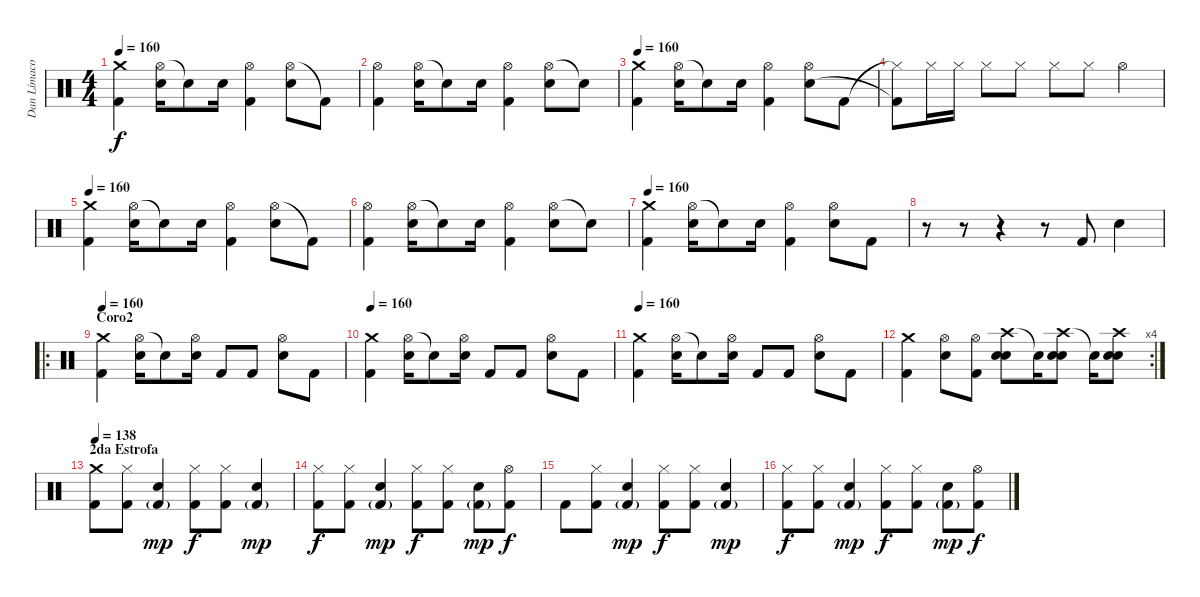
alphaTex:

\track ("Dan Límaco" "Dan Límaco") {instrument percussion}
\staff {score}
\articulation defaults
\ts (4 4)
\tempo 160
\clef neutral
\ks c
("Crash medium (hit)" "Kick (hit) 2").4{dy f} ("Hi-Hat (open)" "Snare (hit) 2").16 "Snare (hit) 2"{t}.8 "Snare (hit) 2".16 ("Hi-Hat (open)" "Kick (hit) 2").4 ("Hi-Hat (open)" "Snare (hit) 2").8 "Kick (hit) 2"{t}.8 |
("Hi-Hat (open)" "Kick (hit) 2").4 ("Hi-Hat (open)" "Snare (hit) 2").16 "Snare (hit) 2"{t}.8 "Snare (hit) 2".16 ("Hi-Hat (open)" "Kick (hit) 2").4 ("Hi-Hat (open)" "Snare (hit) 2").8 "Snare (hit)"{t}.8 |
\tempo 160
("Crash medium (hit)" "Kick (hit) 2").4 ("Hi-Hat (open)" "Snare (hit) 2").16 "Snare (hit) 2"{t}.8 "Snare (hit) 2".16 ("Hi-Hat (open)" "Kick (hit) 2").4 ("Hi-Hat (open)" "Snare (hit) 2").8 "Kick (hit) 2".8 |
("Hi-Hat (closed)"{t} "Kick (hit) 2"{t}).8 "Hi-Hat (closed)".16 "Hi-Hat (closed)".16 "Hi-Hat (closed)".8 "Hi-Hat (closed)".8 "Hi-Hat (closed)".8 "Hi-Hat (closed)".8 "Hi-Hat (open)".4 |
\tempo 160
("Crash medium (hit)" "Kick (hit) 2").4{volume 14} ("Hi-Hat (open)" "Snare (hit) 2").16 "Snare (hit) 2"{t}.8 "Snare (hit) 2".16 ("Hi-Hat (open)" "Kick (hit) 2").4 ("Hi-Hat (open)" "Snare (hit) 2").8 "Kick (hit) 2"{t}.8 |
("Hi-Hat (open)" "Kick (hit) 2").4 ("Hi-Hat (open)" "Snare (hit) 2").16 "Snare (hit) 2"{t}.8 "Snare (hit) 2".16 ("Hi-Hat (open)" "Kick (hit) 2").4 ("Hi-Hat (open)" "Snare (hit) 2").8 "Snare (hit)"{t}.8 |
\tempo 160
("Crash medium (hit)" "Kick (hit) 2").4 ("Hi-Hat (open)" "Snare (hit) 2").16 "Snare (hit) 2"{t}.8 "Snare (hit) 2".16 ("Hi-Hat (open)" "Kick (hit) 2").4 ("Hi-Hat (open)" "Snare (hit) 2").8 "Kick (hit) 2".8 |
r.8 r.8 r.4 r.8 "Kick (hit) 2".8 "Snare (hit) 2".4 |
\ro
\section ("" "Coro2")
\tempo 160
("Crash medium (hit)" "Kick (hit) 2").4{volume 14} ("Hi-Hat (open)" "Snare (hit) 2").16 "Snare (hit) 2"{t}.8 ("Hi-Hat (open)" "Snare (hit) 2").16 "Kick (hit) 2".8 "Kick (hit) 2".8 ("Hi-Hat (open)" "Snare (hit) 2").8 "Kick (hit) 2".8 |
\tempo 160
("Crash medium (hit)" "Kick (hit) 2").4 ("Hi-Hat (open)" "Snare (hit) 2").16 "Snare (hit) 2"{t}.8 ("Hi-Hat (open)" "Snare (hit) 2").16 "Kick (hit) 2".8 "Kick (hit) 2".8 ("Hi-Hat (open)" "Snare (hit) 2").8 "Kick (hit) 2".8 |
\tempo 160
("Crash medium (hit)" "Kick (hit) 2").4 ("Hi-Hat (open)" "Snare (hit) 2").16 "Snare (hit) 2"{t}.8 ("Hi-Hat (open)" "Snare (hit) 2").16 "Kick (hit) 2".8 "Kick (hit) 2".8 ("Hi-Hat (open)" "Snare (hit) 2").8 "Kick (hit) 2".8 |
\rc 4
("Crash medium (hit)" "Kick (hit) 2").4 ("Hi-Hat (open)" "Snare (hit) 2").8 ("Hi-Hat (open)" "Kick (hit) 2").8 ("Crash high (hit)" "Snare (hit) 2" "Snare (hit) 2").8 "Snare (hit) 2"{t}.16 ("Crash high (hit)" "Snare (hit) 2" "Snare (hit) 2").8 "Snare (hit) 2"{t}.16 ("Crash high (hit)" "Snare (hit) 2" "Snare (hit) 2").8 |
\section ("" "2da Estrofa")
\tempo 138
("Crash medium (hit)" "Kick (hit) 2").8 ("Hi-Hat (closed)" "Kick (hit) 2").8 ("Snare (hit) 2" "Kick (hit) 2"{g}).4{dy mp} ("Hi-Hat (closed)" "Kick (hit) 2").8{dy f} ("Hi-Hat (closed)" "Kick (hit) 2").8 ("Snare (hit) 2" "Kick (hit) 2"{g}).4{dy mp} |
("Hi-Hat (closed)" "Kick (hit) 2").8{dy f} ("Hi-Hat (closed)" "Kick (hit) 2").8 ("Snare (hit) 2" "Kick (hit) 2"{g}).4{dy mp} ("Hi-Hat (closed)" "Kick (hit) 2").8{dy f} ("Hi-Hat (closed)" "Kick (hit) 2").8 ("Snare (hit) 2" "Kick (hit) 2"{g}).8{dy mp} ("Hi-Hat (open)" "Kick (hit) 2").8{dy f} |
"Kick (hit) 2".8 ("Hi-Hat (closed)" "Kick (hit) 2").8 ("Snare (hit) 2" "Kick (hit) 2"{g}).4{dy mp} ("Hi-Hat (closed)" "Kick (hit) 2").8{dy f} ("Hi-Hat (closed)" "Kick (hit) 2").8 ("Snare (hit) 2" "Kick (hit) 2"{g}).4{dy mp} |
("Hi-Hat (closed)" "Kick (hit) 2").8{dy f} ("Hi-Hat (closed)" "Kick (hit) 2").8 ("Snare (hit) 2" "Kick (hit) 2"{g}).4{dy mp} ("Hi-Hat (closed)" "Kick (hit) 2").8{dy f} ("Hi-Hat (closed)" "Kick (hit) 2").8 ("Snare (hit) 2" "Kick (hit) 2"{g}).8{dy mp} ("Hi-Hat (open)" "Kick (hit) 2").8{dy f}
